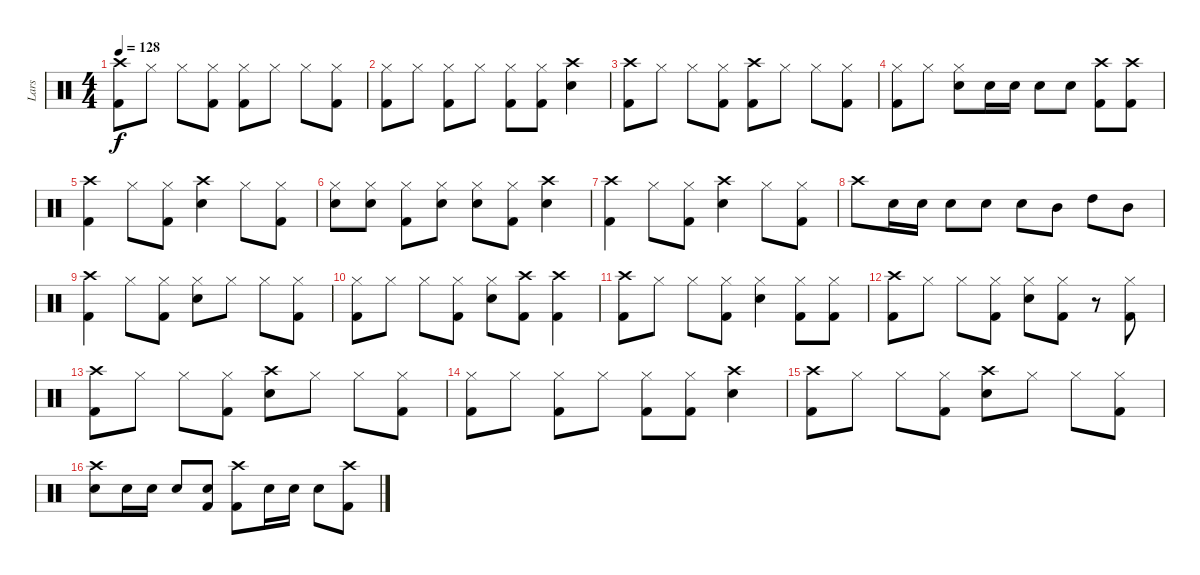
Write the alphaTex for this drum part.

\track ("Lars" "Lars") {instrument percussion}
\staff {score}
\articulation defaults
\ts (4 4)
\tempo 128
\clef neutral
\ks c
("Crash high (hit)" "Kick (hit) 2").8{dy f} "Hi-Hat (closed)".8 "Hi-Hat (closed)".8 ("Hi-Hat (closed)" "Kick (hit) 2").8 ("Hi-Hat (closed)" "Kick (hit) 2").8 "Hi-Hat (closed)".8 "Hi-Hat (closed)".8 ("Hi-Hat (closed)" "Kick (hit) 2").8 |
("Hi-Hat (closed)" "Kick (hit) 2").8 "Hi-Hat (closed)".8 ("Hi-Hat (closed)" "Kick (hit) 2").8 "Hi-Hat (closed)".8 ("Hi-Hat (closed)" "Kick (hit) 2").8 ("Hi-Hat (closed)" "Kick (hit) 2").8 ("Crash high (hit)" "Electric Snare (hit)").4 |
("Crash high (hit)" "Kick (hit) 2").8 "Hi-Hat (closed)".8 "Hi-Hat (closed)".8 ("Hi-Hat (closed)" "Kick (hit) 2").8 ("Crash high (hit)" "Kick (hit) 2").8 "Hi-Hat (closed)".8 "Hi-Hat (closed)".8 ("Hi-Hat (closed)" "Kick (hit) 2").8 |
("Hi-Hat (closed)" "Kick (hit) 2").8 "Hi-Hat (closed)".8 ("Hi-Hat (closed)" "Electric Snare (hit)").8 "Electric Snare (hit)".16 "Electric Snare (hit)".16 "Electric Snare (hit)".8 "Electric Snare (hit)".8 ("Crash high (hit)" "Kick (hit) 2").8 ("Crash high (hit)" "Kick (hit) 2").8 |
("Crash high (hit)" "Kick (hit) 2").4 "Hi-Hat (closed)".8 ("Hi-Hat (closed)" "Kick (hit) 2").8 ("Crash high (hit)" "Electric Snare (hit)").4 "Hi-Hat (closed)".8 ("Hi-Hat (closed)" "Kick (hit) 2").8 |
("Hi-Hat (closed)" "Electric Snare (hit)").8 ("Hi-Hat (closed)" "Electric Snare (hit)").8 ("Hi-Hat (closed)" "Kick (hit) 2").8 ("Hi-Hat (closed)" "Electric Snare (hit)").8 ("Hi-Hat (closed)" "Electric Snare (hit)").8 ("Hi-Hat (closed)" "Kick (hit) 2").8 ("Crash high (hit)" "Electric Snare (hit)").4 |
("Crash high (hit)" "Kick (hit) 2").4 "Hi-Hat (closed)".8 ("Hi-Hat (closed)" "Kick (hit) 2").8 ("Crash high (hit)" "Electric Snare (hit)").4 "Hi-Hat (closed)".8 ("Hi-Hat (closed)" "Kick (hit) 2").8 |
"Crash high (hit)".8 "Electric Snare (hit)".16 "Electric Snare (hit)".16 "Electric Snare (hit)".8 "Electric Snare (hit)".8 "Electric Snare (hit)".8 "Mid Tom (hit)".8 "High Tom (hit)".8 "Mid Tom (hit)".8 |
("Crash high (hit)" "Kick (hit) 2").4 "Hi-Hat (closed)".8 ("Hi-Hat (closed)" "Kick (hit) 2").8 ("Hi-Hat (closed)" "Electric Snare (hit)").8 "Hi-Hat (closed)".8 "Hi-Hat (closed)".8 ("Hi-Hat (closed)" "Kick (hit) 2").8 |
("Hi-Hat (closed)" "Kick (hit) 2").8 "Hi-Hat (closed)".8 "Hi-Hat (closed)".8 ("Hi-Hat (closed)" "Kick (hit) 2").8 ("Hi-Hat (closed)" "Electric Snare (hit)").8 ("Crash high (hit)" "Kick (hit) 2").8 ("Crash high (hit)" "Kick (hit) 2").4 |
("Crash high (hit)" "Kick (hit) 2").8 "Hi-Hat (closed)".8 "Hi-Hat (closed)".8 ("Hi-Hat (closed)" "Kick (hit) 2").8 ("Hi-Hat (closed)" "Electric Snare (hit)").4 ("Hi-Hat (closed)" "Kick (hit) 2").8 ("Hi-Hat (closed)" "Kick (hit) 2").8 |
("Crash high (hit)" "Kick (hit) 2").8 "Hi-Hat (closed)".8 "Hi-Hat (closed)".8 ("Hi-Hat (closed)" "Kick (hit) 2").8 ("Hi-Hat (closed)" "Electric Snare (hit)").8 ("Hi-Hat (closed)" "Kick (hit) 2").8 r.8 ("Hi-Hat (closed)" "Kick (hit) 2").8 |
("Crash high (hit)" "Kick (hit) 2").8 "Hi-Hat (closed)".8 "Hi-Hat (closed)".8 ("Hi-Hat (closed)" "Kick (hit) 2").8 ("Crash high (hit)" "Electric Snare (hit)").8 "Hi-Hat (closed)".8 "Hi-Hat (closed)".8 ("Hi-Hat (closed)" "Kick (hit) 2").8 |
("Hi-Hat (closed)" "Kick (hit) 2").8 "Hi-Hat (closed)".8 ("Hi-Hat (closed)" "Kick (hit) 2").8 "Hi-Hat (closed)".8 ("Hi-Hat (closed)" "Kick (hit) 2").8 ("Hi-Hat (closed)" "Kick (hit) 2").8 ("Crash high (hit)" "Electric Snare (hit)").4 |
("Crash high (hit)" "Kick (hit) 2").8 "Hi-Hat (closed)".8 "Hi-Hat (closed)".8 ("Hi-Hat (closed)" "Kick (hit) 2").8 ("Crash high (hit)" "Electric Snare (hit)").8 "Hi-Hat (closed)".8 "Hi-Hat (closed)".8 ("Hi-Hat (closed)" "Kick (hit) 2").8 |
("Crash high (hit)" "Electric Snare (hit)").8 "Electric Snare (hit)".16 "Electric Snare (hit)".16 "Electric Snare (hit)".8 ("Kick (hit) 2" "Electric Snare (hit)").8 ("Crash high (hit)" "Kick (hit) 2").8 "Electric Snare (hit)".16 "Electric Snare (hit)".16 "Electric Snare (hit)".8 ("Crash high (hit)" "Kick (hit) 2").8
